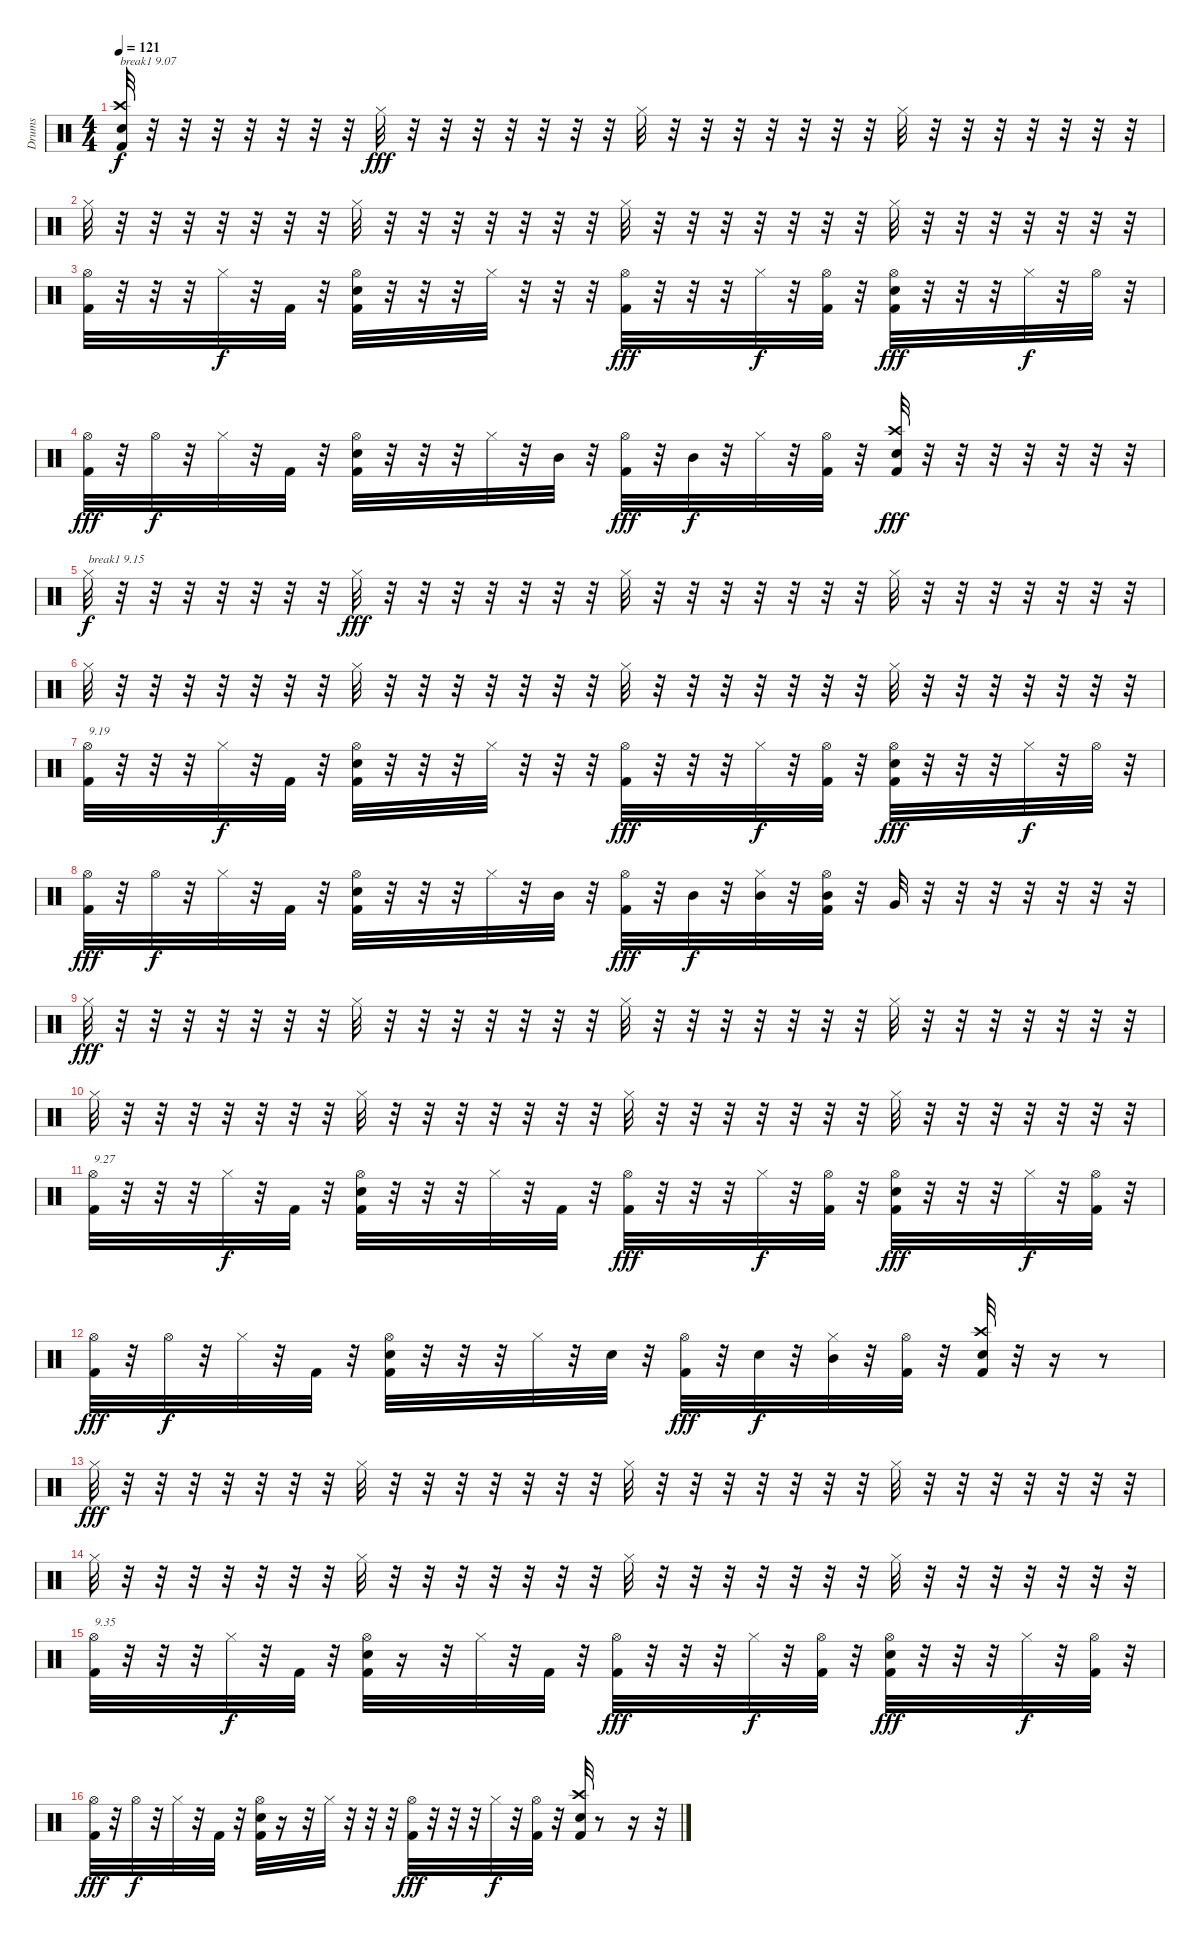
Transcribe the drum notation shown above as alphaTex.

\track ("Drums" "Drums") {instrument percussion}
\staff {score}
\articulation defaults
\ts (4 4)
\tempo 121
\clef neutral
\ks c
("Kick (hit) 2" "Crash high (hit)" "Electric Snare (hit)").32{txt "break1 9.07" dy f} r.32 r.32 r.32 r.32 r.32 r.32 r.32 "Hi-Hat (closed)".32{dy fff} r.32 r.32 r.32 r.32 r.32 r.32 r.32 "Hi-Hat (closed)".32 r.32 r.32 r.32 r.32 r.32 r.32 r.32 "Hi-Hat (closed)".32 r.32 r.32 r.32 r.32 r.32 r.32 r.32 |
"Hi-Hat (closed)".32 r.32 r.32 r.32 r.32 r.32 r.32 r.32 "Hi-Hat (closed)".32 r.32 r.32 r.32 r.32 r.32 r.32 r.32 "Hi-Hat (closed)".32 r.32 r.32 r.32 r.32 r.32 r.32 r.32 "Hi-Hat (closed)".32 r.32 r.32 r.32 r.32 r.32 r.32 r.32 |
("Hi-Hat (open)" "Kick (hit) 2").32 r.32 r.32 r.32 "Hi-Hat (closed)".32{dy f} r.32 "Kick (hit) 2".32 r.32 ("Hi-Hat (open)" "Kick (hit) 2" "Electric Snare (hit)").32 r.32 r.32 r.32 "Hi-Hat (closed)".32 r.32 r.32 r.32 ("Hi-Hat (open)" "Kick (hit) 2").32{dy fff} r.32 r.32 r.32 "Hi-Hat (closed)".32{dy f} r.32 ("Hi-Hat (open)" "Kick (hit) 2").32 r.32 ("Hi-Hat (open)" "Kick (hit) 2" "Electric Snare (hit)").32{dy fff} r.32 r.32 r.32 "Hi-Hat (closed)".32{dy f} r.32 "Hi-Hat (open)".32 r.32 |
("Hi-Hat (open)" "Kick (hit) 2").32{dy fff} r.32 "Hi-Hat (open)".32{dy f} r.32 "Hi-Hat (closed)".32 r.32 "Kick (hit) 2".32 r.32 ("Hi-Hat (open)" "Kick (hit) 2" "Electric Snare (hit)").32 r.32 r.32 r.32 "Hi-Hat (closed)".32 r.32 "Mid Tom (hit)".32 r.32 ("Hi-Hat (open)" "Kick (hit) 2").32{dy fff} r.32 "Mid Tom (hit)".32{dy f} r.32 "Hi-Hat (closed)".32 r.32 ("Hi-Hat (open)" "Kick (hit) 2").32 r.32 ("Kick (hit) 2" "Crash high (hit)" "Electric Snare (hit)").32{dy fff} r.32 r.32 r.32 r.32 r.32 r.32 r.32 |
"Hi-Hat (closed)".32{txt "break1 9.15" dy f} r.32 r.32 r.32 r.32 r.32 r.32 r.32 "Hi-Hat (closed)".32{dy fff} r.32 r.32 r.32 r.32 r.32 r.32 r.32 "Hi-Hat (closed)".32 r.32 r.32 r.32 r.32 r.32 r.32 r.32 "Hi-Hat (closed)".32 r.32 r.32 r.32 r.32 r.32 r.32 r.32 |
"Hi-Hat (closed)".32 r.32 r.32 r.32 r.32 r.32 r.32 r.32 "Hi-Hat (closed)".32 r.32 r.32 r.32 r.32 r.32 r.32 r.32 "Hi-Hat (closed)".32 r.32 r.32 r.32 r.32 r.32 r.32 r.32 "Hi-Hat (closed)".32 r.32 r.32 r.32 r.32 r.32 r.32 r.32 |
("Hi-Hat (open)" "Kick (hit) 2").32{txt "9.19"} r.32 r.32 r.32 "Hi-Hat (closed)".32{dy f} r.32 "Kick (hit) 2".32 r.32 ("Hi-Hat (open)" "Kick (hit) 2" "Electric Snare (hit)").32 r.32 r.32 r.32 "Hi-Hat (closed)".32 r.32 r.32 r.32 ("Hi-Hat (open)" "Kick (hit) 2").32{dy fff} r.32 r.32 r.32 "Hi-Hat (closed)".32{dy f} r.32 ("Hi-Hat (open)" "Kick (hit) 2").32 r.32 ("Hi-Hat (open)" "Kick (hit) 2" "Electric Snare (hit)").32{dy fff} r.32 r.32 r.32 "Hi-Hat (closed)".32{dy f} r.32 "Hi-Hat (open)".32 r.32 |
("Hi-Hat (open)" "Kick (hit) 2").32{dy fff} r.32 "Hi-Hat (open)".32{dy f} r.32 "Hi-Hat (closed)".32 r.32 "Kick (hit) 2".32 r.32 ("Hi-Hat (open)" "Kick (hit) 2" "Electric Snare (hit)").32 r.32 r.32 r.32 "Hi-Hat (closed)".32 r.32 "Mid Tom (hit)".32 r.32 ("Hi-Hat (open)" "Kick (hit) 2").32{dy fff} r.32 "Mid Tom (hit)".32{dy f} r.32 ("Hi-Hat (closed)" "Mid Tom (hit)").32 r.32 ("Hi-Hat (open)" "Kick (hit) 2" "Mid Tom (hit)").32 r.32 "Very Low Tom (hit)".32 r.32 r.32 r.32 r.32 r.32 r.32 r.32 |
"Hi-Hat (closed)".32{dy fff} r.32 r.32 r.32 r.32 r.32 r.32 r.32 "Hi-Hat (closed)".32 r.32 r.32 r.32 r.32 r.32 r.32 r.32 "Hi-Hat (closed)".32 r.32 r.32 r.32 r.32 r.32 r.32 r.32 "Hi-Hat (closed)".32 r.32 r.32 r.32 r.32 r.32 r.32 r.32 |
"Hi-Hat (closed)".32 r.32 r.32 r.32 r.32 r.32 r.32 r.32 "Hi-Hat (closed)".32 r.32 r.32 r.32 r.32 r.32 r.32 r.32 "Hi-Hat (closed)".32 r.32 r.32 r.32 r.32 r.32 r.32 r.32 "Hi-Hat (closed)".32 r.32 r.32 r.32 r.32 r.32 r.32 r.32 |
("Hi-Hat (open)" "Kick (hit) 2").32{txt "9.27"} r.32 r.32 r.32 "Hi-Hat (closed)".32{dy f} r.32 "Kick (hit) 2".32 r.32 ("Hi-Hat (open)" "Kick (hit) 2" "Electric Snare (hit)").32 r.32 r.32 r.32 "Hi-Hat (closed)".32 r.32 "Kick (hit) 2".32 r.32 ("Hi-Hat (open)" "Kick (hit) 2").32{dy fff} r.32 r.32 r.32 "Hi-Hat (closed)".32{dy f} r.32 ("Hi-Hat (open)" "Kick (hit) 2").32 r.32 ("Hi-Hat (open)" "Kick (hit) 2" "Electric Snare (hit)").32{dy fff} r.32 r.32 r.32 "Hi-Hat (closed)".32{dy f} r.32 ("Hi-Hat (open)" "Kick (hit) 2").32 r.32 |
("Hi-Hat (open)" "Kick (hit) 2").32{dy fff} r.32 "Hi-Hat (open)".32{dy f} r.32 "Hi-Hat (closed)".32 r.32 "Kick (hit) 2".32 r.32 ("Hi-Hat (open)" "Kick (hit) 2" "Electric Snare (hit)").32 r.32 r.32 r.32 "Hi-Hat (closed)".32 r.32 "Electric Snare (hit)".32 r.32 ("Hi-Hat (open)" "Kick (hit) 2").32{dy fff} r.32 "Electric Snare (hit)".32{dy f} r.32 ("Hi-Hat (closed)" "Mid Tom (hit)").32 r.32 ("Hi-Hat (open)" "Kick (hit) 2").32 r.32 ("Kick (hit) 2" "Crash high (hit)" "Electric Snare (hit)").32 r.32 r.16 r.8 |
"Hi-Hat (closed)".32{dy fff} r.32 r.32 r.32 r.32 r.32 r.32 r.32 "Hi-Hat (closed)".32 r.32 r.32 r.32 r.32 r.32 r.32 r.32 "Hi-Hat (closed)".32 r.32 r.32 r.32 r.32 r.32 r.32 r.32 "Hi-Hat (closed)".32 r.32 r.32 r.32 r.32 r.32 r.32 r.32 |
"Hi-Hat (closed)".32 r.32 r.32 r.32 r.32 r.32 r.32 r.32 "Hi-Hat (closed)".32 r.32 r.32 r.32 r.32 r.32 r.32 r.32 "Hi-Hat (closed)".32 r.32 r.32 r.32 r.32 r.32 r.32 r.32 "Hi-Hat (closed)".32 r.32 r.32 r.32 r.32 r.32 r.32 r.32 |
("Hi-Hat (open)" "Kick (hit) 2").32{txt "9.35"} r.32 r.32 r.32 "Hi-Hat (closed)".32{dy f} r.32 "Kick (hit) 2".32 r.32 ("Hi-Hat (open)" "Kick (hit) 2" "Electric Snare (hit)").32 r.16 r.32 "Hi-Hat (closed)".32 r.32 "Kick (hit) 2".32 r.32 ("Hi-Hat (open)" "Kick (hit) 2").32{dy fff} r.32 r.32 r.32 "Hi-Hat (closed)".32{dy f} r.32 ("Hi-Hat (open)" "Kick (hit) 2").32 r.32 ("Hi-Hat (open)" "Kick (hit) 2" "Electric Snare (hit)").32{dy fff} r.32 r.32 r.32 "Hi-Hat (closed)".32{dy f} r.32 ("Hi-Hat (open)" "Kick (hit) 2").32 r.32 |
("Hi-Hat (open)" "Kick (hit) 2").32{dy fff} r.32 "Hi-Hat (open)".32{dy f} r.32 "Hi-Hat (closed)".32 r.32 "Kick (hit) 2".32 r.32 ("Hi-Hat (open)" "Kick (hit) 2" "Electric Snare (hit)").32 r.16 r.32 "Hi-Hat (closed)".32 r.32 r.32 r.32 ("Hi-Hat (open)" "Kick (hit) 2").32{dy fff} r.32 r.32 r.32 "Hi-Hat (closed)".32{dy f} r.32 ("Hi-Hat (open)" "Kick (hit) 2").32 r.32 ("Kick (hit) 2" "Crash high (hit)" "Electric Snare (hit)").32 r.8 r.16 r.32
